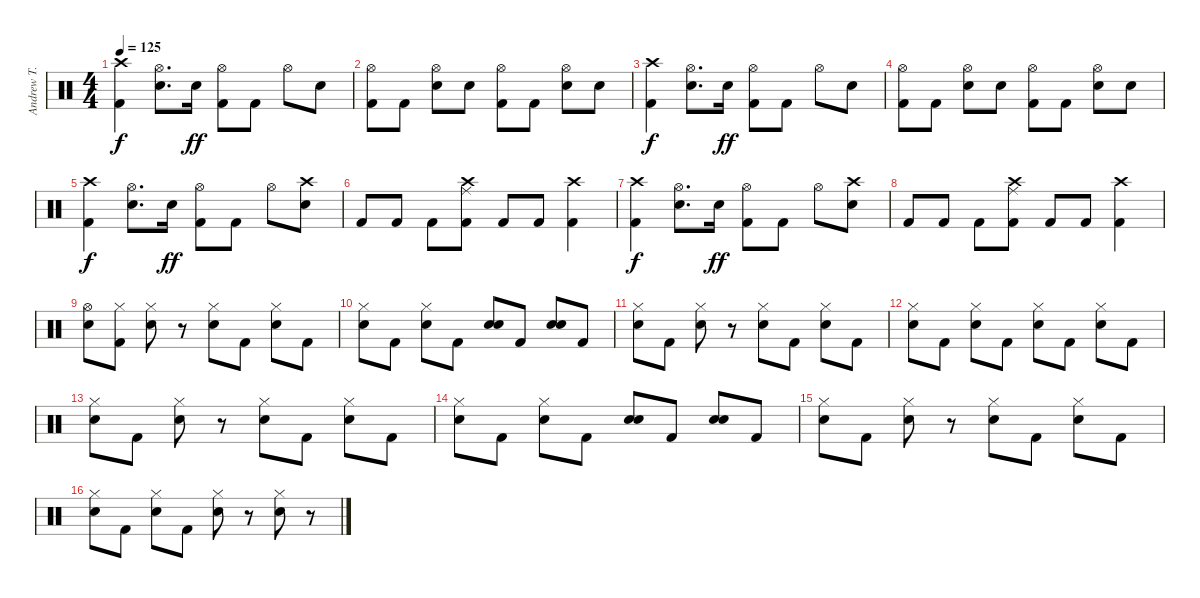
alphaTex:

\track ("Andrew T." "Andrew T.") {instrument percussion}
\staff {score}
\articulation defaults
\ts (4 4)
\tempo 125
\clef neutral
\ks c
("Crash high (hit)" "Kick (hit) 2").4{dy f} ("Hi-Hat (open)" "Electric Snare (hit)").8{d} "Electric Snare (hit)".16{dy ff} ("Hi-Hat (open)" "Kick (hit) 2").8 "Kick (hit) 2".8 "Hi-Hat (open)".8 "Electric Snare (hit)".8 |
("Hi-Hat (open)" "Kick (hit) 2").8 "Kick (hit) 2".8 ("Hi-Hat (open)" "Electric Snare (hit)").8 "Electric Snare (hit)".8 ("Hi-Hat (open)" "Kick (hit) 2").8 "Kick (hit) 2".8 ("Hi-Hat (open)" "Electric Snare (hit)").8 "Electric Snare (hit)".8 |
("Crash high (hit)" "Kick (hit) 2").4{dy f} ("Hi-Hat (open)" "Electric Snare (hit)").8{d} "Electric Snare (hit)".16{dy ff} ("Hi-Hat (open)" "Kick (hit) 2").8 "Kick (hit) 2".8 "Hi-Hat (open)".8 "Electric Snare (hit)".8 |
("Hi-Hat (open)" "Kick (hit) 2").8 "Kick (hit) 2".8 ("Hi-Hat (open)" "Electric Snare (hit)").8 "Electric Snare (hit)".8 ("Hi-Hat (open)" "Kick (hit) 2").8 "Kick (hit) 2".8 ("Hi-Hat (open)" "Electric Snare (hit)").8 "Electric Snare (hit)".8 |
("Crash high (hit)" "Kick (hit) 2").4{dy f} ("Hi-Hat (open)" "Electric Snare (hit)").8{d} "Electric Snare (hit)".16{dy ff} ("Hi-Hat (open)" "Kick (hit) 2").8 "Kick (hit) 2".8 "Hi-Hat (open)".8 ("Electric Snare (hit)" "Crash high (hit)").8 |
"Kick (hit) 2".8 "Kick (hit) 2".8 "Kick (hit) 2".8 ("Ride (middle)" "Crash high (hit)" "Kick (hit) 2").8 "Kick (hit) 2".8 "Kick (hit) 2".8 ("Crash high (hit)" "Kick (hit) 2").4 |
("Crash high (hit)" "Kick (hit) 2").4{dy f} ("Hi-Hat (open)" "Electric Snare (hit)").8{d} "Electric Snare (hit)".16{dy ff} ("Hi-Hat (open)" "Kick (hit) 2").8 "Kick (hit) 2".8 "Hi-Hat (open)".8 ("Electric Snare (hit)" "Crash high (hit)").8 |
"Kick (hit) 2".8 "Kick (hit) 2".8 "Kick (hit) 2".8 ("Ride (middle)" "Crash high (hit)" "Kick (hit) 2").8 "Kick (hit) 2".8 "Kick (hit) 2".8 ("Crash high (hit)" "Kick (hit) 2").4 |
("Hi-Hat (open)" "Electric Snare (hit)").8 ("Kick (hit) 2" "Hi-Hat (closed)").8 ("Hi-Hat (closed)" "Electric Snare (hit)").8 r.8 ("Hi-Hat (closed)" "Electric Snare (hit)").8 "Kick (hit) 2".8 ("Hi-Hat (closed)" "Electric Snare (hit)").8 "Kick (hit) 2".8 |
("Hi-Hat (closed)" "Electric Snare (hit)").8 "Kick (hit) 2".8 ("Hi-Hat (closed)" "Electric Snare (hit)").8 "Kick (hit) 2".8 ("Electric Snare (hit)" "Electric Snare (hit)").8 "Kick (hit) 2".8 ("Electric Snare (hit)" "Electric Snare (hit)").8 "Kick (hit) 2".8 |
("Hi-Hat (closed)" "Electric Snare (hit)").8 "Kick (hit) 2".8 ("Hi-Hat (closed)" "Electric Snare (hit)").8 r.8 ("Hi-Hat (closed)" "Electric Snare (hit)").8 "Kick (hit) 2".8 ("Hi-Hat (closed)" "Electric Snare (hit)").8 "Kick (hit) 2".8 |
("Hi-Hat (closed)" "Electric Snare (hit)").8 "Kick (hit) 2".8 ("Hi-Hat (closed)" "Electric Snare (hit)").8 "Kick (hit) 2".8 ("Hi-Hat (closed)" "Electric Snare (hit)").8 "Kick (hit) 2".8 ("Hi-Hat (closed)" "Electric Snare (hit)").8 "Kick (hit) 2".8 |
("Hi-Hat (closed)" "Electric Snare (hit)").8 "Kick (hit) 2".8 ("Hi-Hat (closed)" "Electric Snare (hit)").8 r.8 ("Hi-Hat (closed)" "Electric Snare (hit)").8 "Kick (hit) 2".8 ("Hi-Hat (closed)" "Electric Snare (hit)").8 "Kick (hit) 2".8 |
("Hi-Hat (closed)" "Electric Snare (hit)").8 "Kick (hit) 2".8 ("Hi-Hat (closed)" "Electric Snare (hit)").8 "Kick (hit) 2".8 ("Electric Snare (hit)" "Electric Snare (hit)").8 "Kick (hit) 2".8 ("Electric Snare (hit)" "Electric Snare (hit)").8 "Kick (hit) 2".8 |
("Hi-Hat (closed)" "Electric Snare (hit)").8 "Kick (hit) 2".8 ("Hi-Hat (closed)" "Electric Snare (hit)").8 r.8 ("Hi-Hat (closed)" "Electric Snare (hit)").8 "Kick (hit) 2".8 ("Hi-Hat (closed)" "Electric Snare (hit)").8 "Kick (hit) 2".8 |
("Hi-Hat (closed)" "Electric Snare (hit)").8 "Kick (hit) 2".8 ("Hi-Hat (closed)" "Electric Snare (hit)").8 "Kick (hit) 2".8 ("Hi-Hat (closed)" "Electric Snare (hit)").8 r.8 ("Hi-Hat (closed)" "Electric Snare (hit)").8 r.8
